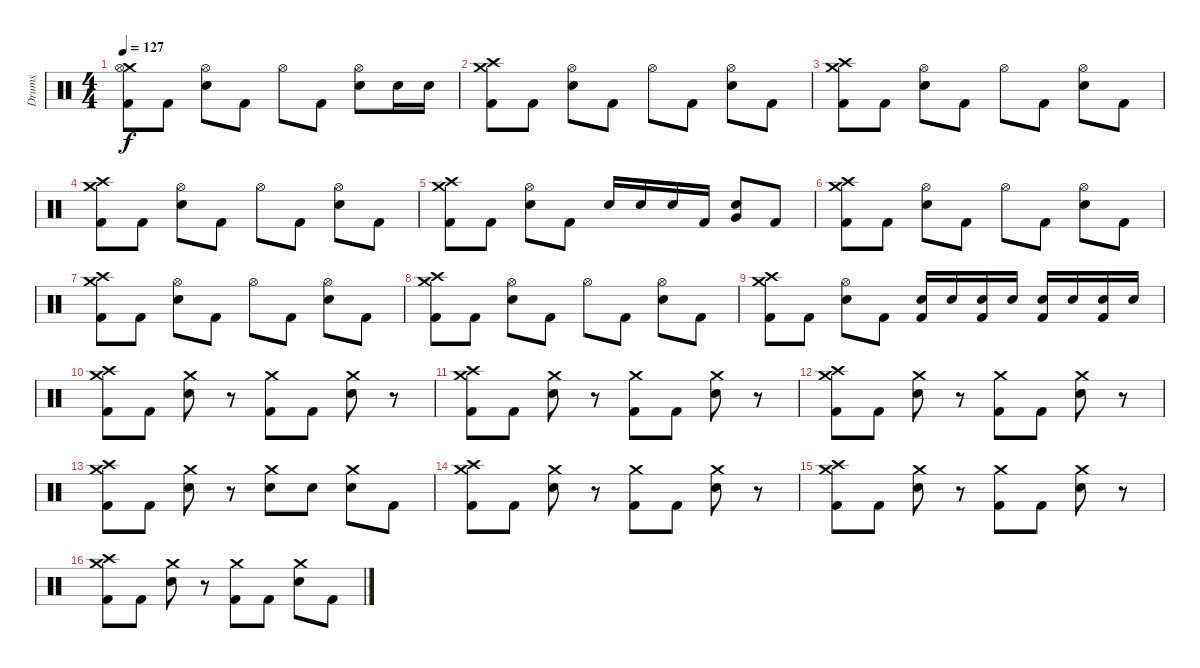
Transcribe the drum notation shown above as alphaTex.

\track ("Drums" "Drums") {instrument percussion}
\staff {score}
\articulation defaults
\ts (4 4)
\tempo 127
\clef neutral
\ks c
("Crash medium (hit)" "Hi-Hat (open)" "Kick (hit) 2").8{dy f} "Kick (hit) 2".8 ("Hi-Hat (open)" "Snare (hit) 2").8 "Kick (hit) 2".8 "Hi-Hat (open)".8 "Kick (hit) 2".8 ("Hi-Hat (open)" "Snare (hit) 2").8 "Snare (hit) 2".16 "Snare (hit) 2".16 |
("Crash medium (hit)" "Crash high (hit)" "Kick (hit) 2").8 "Kick (hit) 2".8 ("Hi-Hat (open)" "Snare (hit) 2").8 "Kick (hit) 2".8 "Hi-Hat (open)".8 "Kick (hit) 2".8 ("Hi-Hat (open)" "Snare (hit) 2").8 "Kick (hit) 2".8 |
("Crash medium (hit)" "Crash high (hit)" "Kick (hit) 2").8 "Kick (hit) 2".8 ("Hi-Hat (open)" "Snare (hit) 2").8 "Kick (hit) 2".8 "Hi-Hat (open)".8 "Kick (hit) 2".8 ("Hi-Hat (open)" "Snare (hit) 2").8 "Kick (hit) 2".8 |
("Crash medium (hit)" "Crash high (hit)" "Kick (hit) 2").8 "Kick (hit) 2".8 ("Hi-Hat (open)" "Snare (hit) 2").8 "Kick (hit) 2".8 "Hi-Hat (open)".8 "Kick (hit) 2".8 ("Hi-Hat (open)" "Snare (hit) 2").8 "Kick (hit) 2".8 |
("Crash medium (hit)" "Crash high (hit)" "Kick (hit) 2").8 "Kick (hit) 2".8 ("Hi-Hat (open)" "Snare (hit) 2").8 "Kick (hit) 2".8 "Snare (hit) 2".16 "Snare (hit) 2".16 "Snare (hit) 2".16 "Kick (hit) 2".16 ("Very Low Tom (hit)" "Snare (hit) 2").8 "Kick (hit) 2".8 |
("Crash medium (hit)" "Crash high (hit)" "Kick (hit) 2").8 "Kick (hit) 2".8 ("Hi-Hat (open)" "Snare (hit) 2").8 "Kick (hit) 2".8 "Hi-Hat (open)".8 "Kick (hit) 2".8 ("Hi-Hat (open)" "Snare (hit) 2").8 "Kick (hit) 2".8 |
("Crash medium (hit)" "Crash high (hit)" "Kick (hit) 2").8 "Kick (hit) 2".8 ("Hi-Hat (open)" "Snare (hit) 2").8 "Kick (hit) 2".8 "Hi-Hat (open)".8 "Kick (hit) 2".8 ("Hi-Hat (open)" "Snare (hit) 2").8 "Kick (hit) 2".8 |
("Crash medium (hit)" "Crash high (hit)" "Kick (hit) 2").8 "Kick (hit) 2".8 ("Hi-Hat (open)" "Snare (hit) 2").8 "Kick (hit) 2".8 "Hi-Hat (open)".8 "Kick (hit) 2".8 ("Hi-Hat (open)" "Snare (hit) 2").8 "Kick (hit) 2".8 |
("Crash medium (hit)" "Crash high (hit)" "Kick (hit) 2").8 "Kick (hit) 2".8 ("Hi-Hat (open)" "Snare (hit) 2").8 "Kick (hit) 2".8 ("Snare (hit) 2" "Kick (hit) 2").16 "Snare (hit) 2".16 ("Snare (hit) 2" "Kick (hit) 2").16 "Snare (hit) 2".16 ("Snare (hit) 2" "Kick (hit) 2").16 "Snare (hit) 2".16 ("Snare (hit) 2" "Kick (hit) 2").16 "Snare (hit) 2".16 |
("Crash high (hit)" "Crash medium (hit)" "Kick (hit) 2").8 "Kick (hit) 2".8 ("Crash medium (hit)" "Snare (hit) 2").8 r.8 ("Crash medium (hit)" "Kick (hit) 2").8 "Kick (hit) 2".8 ("Crash medium (hit)" "Snare (hit) 2").8 r.8 |
("Crash high (hit)" "Crash medium (hit)" "Kick (hit) 2").8 "Kick (hit) 2".8 ("Crash medium (hit)" "Snare (hit) 2").8 r.8 ("Crash medium (hit)" "Kick (hit) 2").8 "Kick (hit) 2".8 ("Crash medium (hit)" "Snare (hit) 2").8 r.8 |
("Crash high (hit)" "Crash medium (hit)" "Kick (hit) 2").8 "Kick (hit) 2".8 ("Crash medium (hit)" "Snare (hit) 2").8 r.8 ("Crash medium (hit)" "Kick (hit) 2").8 "Kick (hit) 2".8 ("Crash medium (hit)" "Snare (hit) 2").8 r.8 |
("Crash high (hit)" "Crash medium (hit)" "Kick (hit) 2").8 "Kick (hit) 2".8 ("Crash medium (hit)" "Snare (hit) 2").8 r.8 ("Crash medium (hit)" "Snare (hit) 2").8 "Snare (hit) 2".8 ("Crash medium (hit)" "Snare (hit) 2").8 "Kick (hit) 2".8 |
("Crash high (hit)" "Crash medium (hit)" "Kick (hit) 2").8 "Kick (hit) 2".8 ("Crash medium (hit)" "Snare (hit) 2").8 r.8 ("Crash medium (hit)" "Kick (hit) 2").8 "Kick (hit) 2".8 ("Crash medium (hit)" "Snare (hit) 2").8 r.8 |
("Crash high (hit)" "Crash medium (hit)" "Kick (hit) 2").8 "Kick (hit) 2".8 ("Crash medium (hit)" "Snare (hit) 2").8 r.8 ("Crash medium (hit)" "Kick (hit) 2").8 "Kick (hit) 2".8 ("Crash medium (hit)" "Snare (hit) 2").8 r.8 |
("Crash high (hit)" "Crash medium (hit)" "Kick (hit) 2").8 "Kick (hit) 2".8 ("Crash medium (hit)" "Snare (hit) 2").8 r.8 ("Crash medium (hit)" "Kick (hit) 2").8 "Kick (hit) 2".8 ("Crash medium (hit)" "Snare (hit) 2").8 "Kick (hit) 2".8
